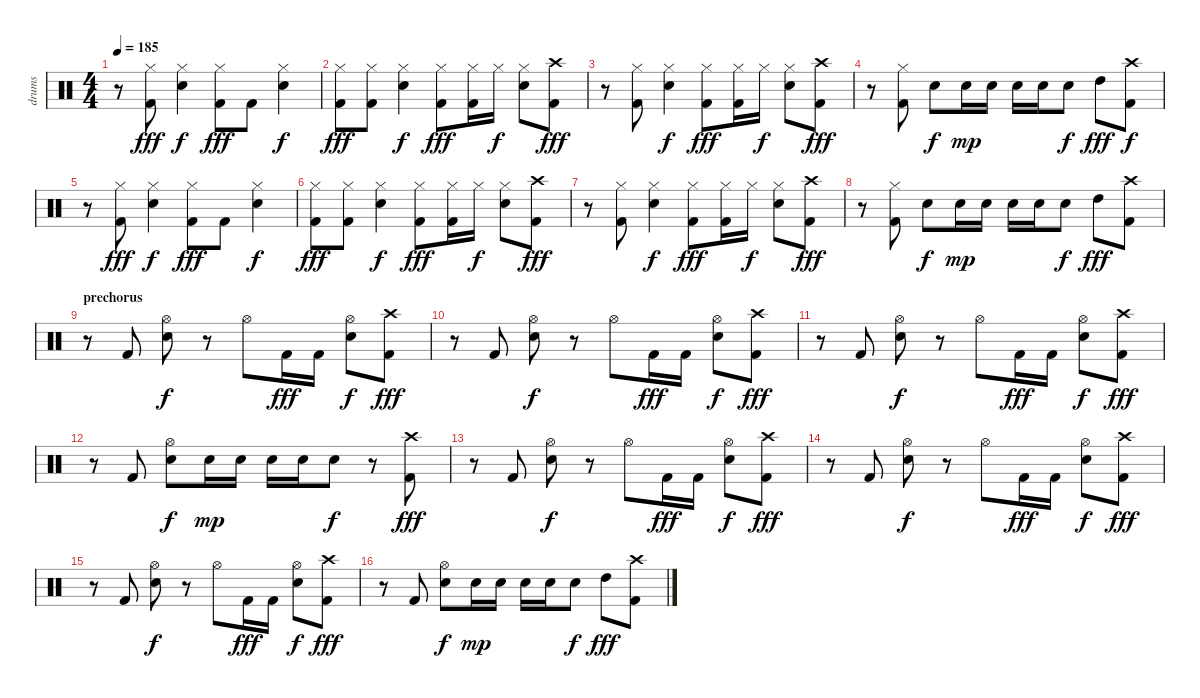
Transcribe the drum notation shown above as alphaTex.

\track ("drums" "drums") {instrument percussion}
\staff {score}
\articulation defaults
\ts (4 4)
\tempo 185
\clef neutral
\ks c
r.8{dy fff} ("Hi-Hat (closed)" "Kick (hit) 2").8 ("Hi-Hat (closed)" "Snare (hit) 2").4{dy f} ("Hi-Hat (closed)" "Kick (hit) 2").8{dy fff} "Kick (hit) 2".8 ("Hi-Hat (closed)" "Snare (hit) 2").4{dy f} |
("Hi-Hat (closed)" "Kick (hit) 2").8{dy fff} ("Hi-Hat (closed)" "Kick (hit) 2").8 ("Hi-Hat (closed)" "Snare (hit) 2").4{dy f} ("Hi-Hat (closed)" "Kick (hit) 2").8{dy fff} ("Hi-Hat (closed)" "Kick (hit) 2").16 "Hi-Hat (closed)".16{dy f} ("Hi-Hat (closed)" "Snare (hit) 2").8 ("Crash high (hit)" "Kick (hit) 2").8{dy fff} |
r.8 ("Hi-Hat (closed)" "Kick (hit) 2").8 ("Hi-Hat (closed)" "Snare (hit) 2").4{dy f} ("Hi-Hat (closed)" "Kick (hit) 2").8{dy fff} ("Hi-Hat (closed)" "Kick (hit) 2").16 "Hi-Hat (closed)".16{dy f} ("Hi-Hat (closed)" "Snare (hit) 2").8 ("Crash high (hit)" "Kick (hit) 2").8{dy fff} |
r.8 ("Hi-Hat (closed)" "Kick (hit) 2").8 "Snare (hit) 2".8{dy f} "Snare (hit) 2".16{dy mp} "Snare (hit) 2".16 "Snare (hit) 2".16 "Snare (hit) 2".16 "Snare (hit) 2".8{dy f} "High Tom (hit)".8{dy fff} ("Crash high (hit)" "Kick (hit) 2").8{dy f} |
r.8 ("Hi-Hat (closed)" "Kick (hit) 2").8{dy fff} ("Hi-Hat (closed)" "Snare (hit) 2").4{dy f} ("Hi-Hat (closed)" "Kick (hit) 2").8{dy fff} "Kick (hit) 2".8 ("Hi-Hat (closed)" "Snare (hit) 2").4{dy f} |
("Hi-Hat (closed)" "Kick (hit) 2").8{dy fff} ("Hi-Hat (closed)" "Kick (hit) 2").8 ("Hi-Hat (closed)" "Snare (hit) 2").4{dy f} ("Hi-Hat (closed)" "Kick (hit) 2").8{dy fff} ("Hi-Hat (closed)" "Kick (hit) 2").16 "Hi-Hat (closed)".16{dy f} ("Hi-Hat (closed)" "Snare (hit) 2").8 ("Crash high (hit)" "Kick (hit) 2").8{dy fff} |
r.8 ("Hi-Hat (closed)" "Kick (hit) 2").8 ("Hi-Hat (closed)" "Snare (hit) 2").4{dy f} ("Hi-Hat (closed)" "Kick (hit) 2").8{dy fff} ("Hi-Hat (closed)" "Kick (hit) 2").16 "Hi-Hat (closed)".16{dy f} ("Hi-Hat (closed)" "Snare (hit) 2").8 ("Crash high (hit)" "Kick (hit) 2").8{dy fff} |
r.8 ("Hi-Hat (closed)" "Kick (hit) 2").8 "Snare (hit) 2".8{dy f} "Snare (hit) 2".16{dy mp} "Snare (hit) 2".16 "Snare (hit) 2".16 "Snare (hit) 2".16 "Snare (hit) 2".8{dy f} "High Tom (hit)".8{dy fff} ("Crash high (hit)" "Kick (hit) 2").8 |
\section ("" "prechorus")
r.8 "Kick (hit) 2".8 ("Hi-Hat (open)" "Snare (hit) 2").8{dy f} r.8 "Hi-Hat (open)".8 "Kick (hit) 2".16{dy fff} "Kick (hit) 2".16 ("Hi-Hat (open)" "Snare (hit) 2").8{dy f} ("Crash high (hit)" "Kick (hit) 2").8{dy fff} |
r.8 "Kick (hit) 2".8 ("Hi-Hat (open)" "Snare (hit) 2").8{dy f} r.8 "Hi-Hat (open)".8 "Kick (hit) 2".16{dy fff} "Kick (hit) 2".16 ("Hi-Hat (open)" "Snare (hit) 2").8{dy f} ("Crash high (hit)" "Kick (hit) 2").8{dy fff} |
r.8 "Kick (hit) 2".8 ("Hi-Hat (open)" "Snare (hit) 2").8{dy f} r.8 "Hi-Hat (open)".8 "Kick (hit) 2".16{dy fff} "Kick (hit) 2".16 ("Hi-Hat (open)" "Snare (hit) 2").8{dy f} ("Crash high (hit)" "Kick (hit) 2").8{dy fff} |
r.8 "Kick (hit) 2".8 ("Hi-Hat (open)" "Snare (hit) 2").8{dy f} "Snare (hit) 2".16{dy mp} "Snare (hit) 2".16 "Snare (hit) 2".16 "Snare (hit) 2".16 "Snare (hit) 2".8{dy f} r.8 ("Crash high (hit)" "Kick (hit) 2").8{dy fff} |
r.8 "Kick (hit) 2".8 ("Hi-Hat (open)" "Snare (hit) 2").8{dy f} r.8 "Hi-Hat (open)".8 "Kick (hit) 2".16{dy fff} "Kick (hit) 2".16 ("Hi-Hat (open)" "Snare (hit) 2").8{dy f} ("Crash high (hit)" "Kick (hit) 2").8{dy fff} |
r.8 "Kick (hit) 2".8 ("Hi-Hat (open)" "Snare (hit) 2").8{dy f} r.8 "Hi-Hat (open)".8 "Kick (hit) 2".16{dy fff} "Kick (hit) 2".16 ("Hi-Hat (open)" "Snare (hit) 2").8{dy f} ("Crash high (hit)" "Kick (hit) 2").8{dy fff} |
r.8 "Kick (hit) 2".8 ("Hi-Hat (open)" "Snare (hit) 2").8{dy f} r.8 "Hi-Hat (open)".8 "Kick (hit) 2".16{dy fff} "Kick (hit) 2".16 ("Hi-Hat (open)" "Snare (hit) 2").8{dy f} ("Crash high (hit)" "Kick (hit) 2").8{dy fff} |
r.8 "Kick (hit) 2".8 ("Hi-Hat (open)" "Snare (hit) 2").8{dy f} "Snare (hit) 2".16{dy mp} "Snare (hit) 2".16 "Snare (hit) 2".16 "Snare (hit) 2".16 "Snare (hit) 2".8{dy f} "High Tom (hit)".8{dy fff} ("Crash high (hit)" "Kick (hit) 2").8
